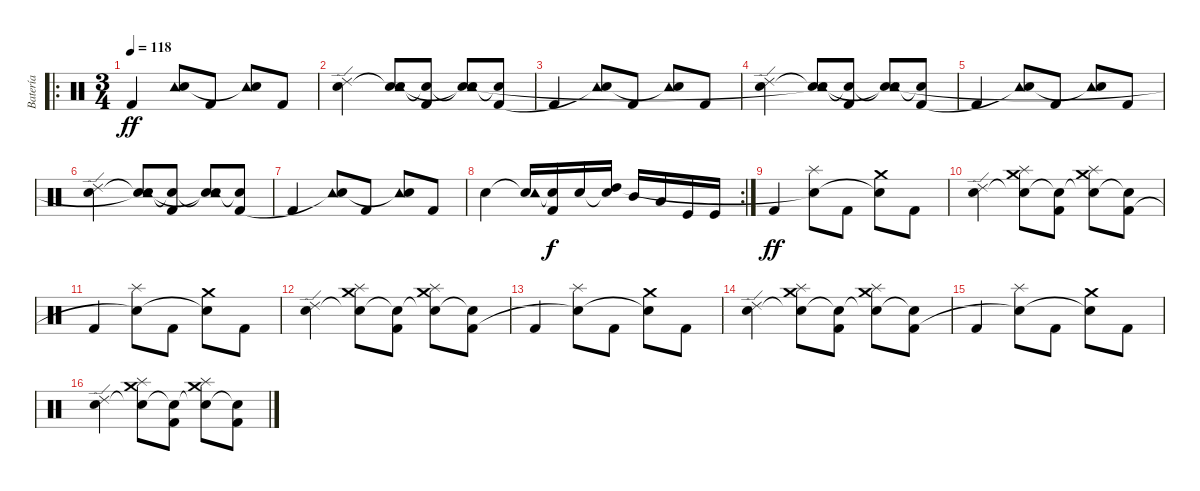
\track ("Batería" "Batería") {instrument percussion}
\staff {score}
\articulation defaults
\ro
\ts (3 4)
\tempo 118
\clef neutral
\ks c "Kick (hit) 2".4{dy ff volume 16}
("Tambourine (hit)" "Snare (hit)"{t}).8 "Kick (hit) 2".8 ("Tambourine (hit)" "Snare (hit)"{t}).8 "Kick (hit) 2".8 |
("Snare (hit) 2" "Ride (edge) 2").4 ("Snare (hit)"{t} "Tambourine (hit)" "Snare (hit)"{t}).8 ("Snare (hit)"{t} "Kick (hit) 2").8 ("Snare (hit)"{t} "Tambourine (hit)" "Snare (hit)"{t}).8 ("Snare (hit)"{t} "Kick (hit) 2").8 |
"Kick (hit) 2".4 ("Tambourine (hit)" "Snare (hit)"{t}).8 "Kick (hit) 2".8 ("Tambourine (hit)" "Snare (hit)"{t}).8 "Kick (hit) 2".8 |
("Snare (hit) 2" "Ride (edge) 2").4 ("Snare (hit)"{t} "Tambourine (hit)" "Snare (hit)"{t}).8 ("Snare (hit)"{t} "Kick (hit) 2").8 ("Snare (hit)"{t} "Tambourine (hit)" "Snare (hit)"{t}).8 ("Snare (hit)"{t} "Kick (hit) 2").8 |
"Kick (hit) 2".4 ("Tambourine (hit)" "Snare (hit)"{t}).8 "Kick (hit) 2".8 ("Tambourine (hit)" "Snare (hit)"{t}).8 "Kick (hit) 2".8 |
("Snare (hit) 2" "Ride (edge) 2").4 ("Snare (hit)"{t} "Tambourine (hit)" "Snare (hit)"{t}).8 ("Snare (hit)"{t} "Kick (hit) 2").8 ("Snare (hit)"{t} "Tambourine (hit)" "Snare (hit)"{t}).8 ("Snare (hit)"{t} "Kick (hit) 2").8 |
"Kick (hit) 2".4 ("Tambourine (hit)" "Snare (hit)"{t}).8 "Kick (hit) 2".8 ("Tambourine (hit)" "Snare (hit)"{t}).8 "Kick (hit) 2".8 |
\rc 2 "Snare (hit) 2".4
("Snare (hit)"{t} "Tambourine (hit)").16 ("Snare (hit)"{t} "Kick (hit) 2").16{dy f} "Snare (hit) 2".16 ("Snare (hit)"{t} "High Tom (hit)").16 "Mid Tom (hit)".16 "Low Tom (hit)".16 "Kick (hit)".16 "Kick (hit)".16 |
"Kick (hit) 2".4{dy ff volume 16} ("Splash (hit)" "Snare (hit)"{t}).8 "Kick (hit) 2".8 ("Crash medium (hit)" "Snare (hit)"{t}).8 "Kick (hit) 2".8 |
("Snare (hit) 2" "Ride (edge) 2").4 ("Snare (hit)"{t} "Splash (hit)" "Crash medium (hit)").8 ("Snare (hit)"{t} "Kick (hit) 2").8 ("Snare (hit)"{t} "Crash medium (hit)" "Splash (hit)").8 ("Snare (hit)"{t} "Kick (hit) 2").8 |
"Kick (hit) 2".4{volume 16} ("Splash (hit)" "Snare (hit)"{t}).8 "Kick (hit) 2".8 ("Crash medium (hit)" "Snare (hit)"{t}).8 "Kick (hit) 2".8 |
("Snare (hit) 2" "Ride (edge) 2").4 ("Snare (hit)"{t} "Splash (hit)" "Crash medium (hit)").8 ("Snare (hit)"{t} "Kick (hit) 2").8 ("Snare (hit)"{t} "Crash medium (hit)" "Splash (hit)").8 ("Snare (hit)"{t} "Kick (hit) 2").8 |
"Kick (hit) 2".4{volume 16} ("Splash (hit)" "Snare (hit)"{t}).8 "Kick (hit) 2".8 ("Crash medium (hit)" "Snare (hit)"{t}).8 "Kick (hit) 2".8 |
("Snare (hit) 2" "Ride (edge) 2").4 ("Snare (hit)"{t} "Splash (hit)" "Crash medium (hit)").8 ("Snare (hit)"{t} "Kick (hit) 2").8 ("Snare (hit)"{t} "Crash medium (hit)" "Splash (hit)").8 ("Snare (hit)"{t} "Kick (hit) 2").8 |
"Kick (hit) 2".4{volume 16} ("Splash (hit)" "Snare (hit)"{t}).8 "Kick (hit) 2".8 ("Crash medium (hit)" "Snare (hit)"{t}).8 "Kick (hit) 2".8 |
("Snare (hit) 2" "Ride (edge) 2").4 ("Snare (hit)"{t} "Splash (hit)" "Crash medium (hit)").8 ("Snare (hit)"{t} "Kick (hit) 2").8 ("Snare (hit)"{t} "Crash medium (hit)" "Splash (hit)").8 ("Snare (hit)"{t} "Kick (hit) 2").8
